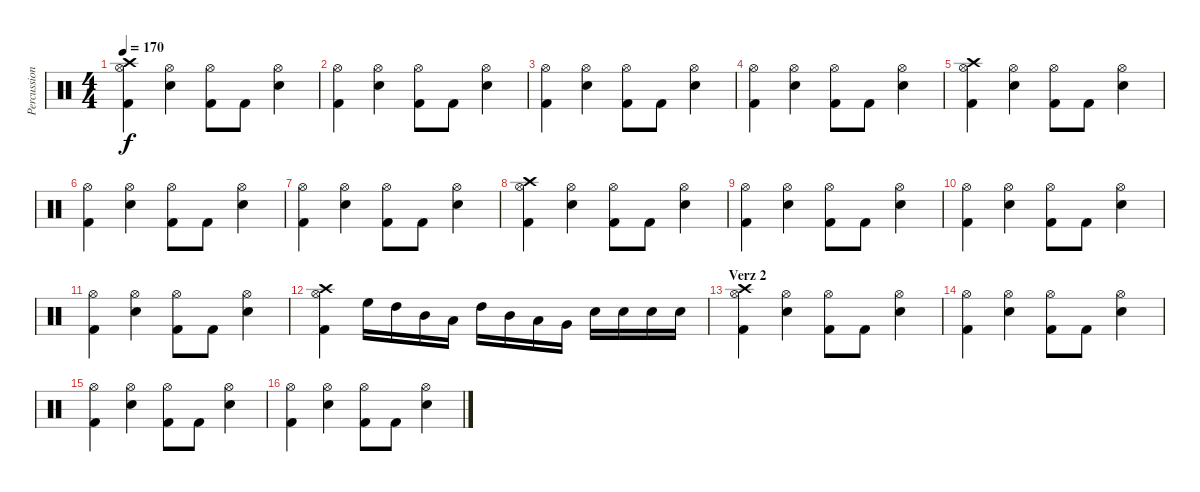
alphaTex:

\track ("Percussion - Who the fuck knows" "Percussion") {instrument percussion}
\staff {score}
\articulation defaults
\ts (4 4)
\tempo 170
\clef neutral
\ks c
("Crash high (hit)" "Kick (hit) 2" "Hi-Hat (open)").4{dy f} ("Hi-Hat (open)" "Snare (hit) 2").4 ("Hi-Hat (open)" "Kick (hit) 2").8 "Kick (hit) 2".8 ("Hi-Hat (open)" "Snare (hit) 2").4 |
("Hi-Hat (open)" "Kick (hit) 2").4 ("Hi-Hat (open)" "Snare (hit) 2").4 ("Hi-Hat (open)" "Kick (hit) 2").8 "Kick (hit) 2".8 ("Hi-Hat (open)" "Snare (hit) 2").4 |
("Hi-Hat (open)" "Kick (hit) 2").4 ("Hi-Hat (open)" "Snare (hit) 2").4 ("Hi-Hat (open)" "Kick (hit) 2").8 "Kick (hit) 2".8 ("Hi-Hat (open)" "Snare (hit) 2").4 |
("Hi-Hat (open)" "Kick (hit) 2").4 ("Hi-Hat (open)" "Snare (hit) 2").4 ("Hi-Hat (open)" "Kick (hit) 2").8 "Kick (hit) 2".8 ("Hi-Hat (open)" "Snare (hit) 2").4 |
("Crash high (hit)" "Kick (hit) 2" "Hi-Hat (open)").4 ("Hi-Hat (open)" "Snare (hit) 2").4 ("Hi-Hat (open)" "Kick (hit) 2").8 "Kick (hit) 2".8 ("Hi-Hat (open)" "Snare (hit) 2").4 |
("Hi-Hat (open)" "Kick (hit) 2").4 ("Hi-Hat (open)" "Snare (hit) 2").4 ("Hi-Hat (open)" "Kick (hit) 2").8 "Kick (hit) 2".8 ("Hi-Hat (open)" "Snare (hit) 2").4 |
("Hi-Hat (open)" "Kick (hit) 2").4 ("Hi-Hat (open)" "Snare (hit) 2").4 ("Hi-Hat (open)" "Kick (hit) 2").8 "Kick (hit) 2".8 ("Hi-Hat (open)" "Snare (hit) 2").4 |
("Crash high (hit)" "Kick (hit) 2" "Hi-Hat (open)").4 ("Hi-Hat (open)" "Snare (hit) 2").4 ("Hi-Hat (open)" "Kick (hit) 2").8 "Kick (hit) 2".8 ("Hi-Hat (open)" "Snare (hit) 2").4 |
("Hi-Hat (open)" "Kick (hit) 2").4 ("Hi-Hat (open)" "Snare (hit) 2").4 ("Hi-Hat (open)" "Kick (hit) 2").8 "Kick (hit) 2".8 ("Hi-Hat (open)" "Snare (hit) 2").4 |
("Hi-Hat (open)" "Kick (hit) 2").4 ("Hi-Hat (open)" "Snare (hit) 2").4 ("Hi-Hat (open)" "Kick (hit) 2").8 "Kick (hit) 2".8 ("Hi-Hat (open)" "Snare (hit) 2").4 |
("Hi-Hat (open)" "Kick (hit) 2").4 ("Hi-Hat (open)" "Snare (hit) 2").4 ("Hi-Hat (open)" "Kick (hit) 2").8 "Kick (hit) 2".8 ("Hi-Hat (open)" "Snare (hit) 2").4 |
("Crash high (hit)" "Kick (hit) 2" "Hi-Hat (open)").4 "High Floor Tom (hit)".16 "High Tom (hit)".16 "Mid Tom (hit)".16 "Low Tom (hit)".16 "High Tom (hit)".16 "Mid Tom (hit)".16 "Low Tom (hit)".16 "Very Low Tom (hit)".16 "Snare (hit) 2".16 "Snare (hit) 2".16 "Snare (hit) 2".16 "Snare (hit) 2".16 |
\section ("" "Verz 2")
("Crash high (hit)" "Kick (hit) 2" "Hi-Hat (open)").4 ("Hi-Hat (open)" "Snare (hit) 2").4 ("Hi-Hat (open)" "Kick (hit) 2").8 "Kick (hit) 2".8 ("Hi-Hat (open)" "Snare (hit) 2").4 |
("Hi-Hat (open)" "Kick (hit) 2").4 ("Hi-Hat (open)" "Snare (hit) 2").4 ("Hi-Hat (open)" "Kick (hit) 2").8 "Kick (hit) 2".8 ("Hi-Hat (open)" "Snare (hit) 2").4 |
("Hi-Hat (open)" "Kick (hit) 2").4 ("Hi-Hat (open)" "Snare (hit) 2").4 ("Hi-Hat (open)" "Kick (hit) 2").8 "Kick (hit) 2".8 ("Hi-Hat (open)" "Snare (hit) 2").4 |
("Hi-Hat (open)" "Kick (hit) 2").4 ("Hi-Hat (open)" "Snare (hit) 2").4 ("Hi-Hat (open)" "Kick (hit) 2").8 "Kick (hit) 2".8 ("Hi-Hat (open)" "Snare (hit) 2").4
